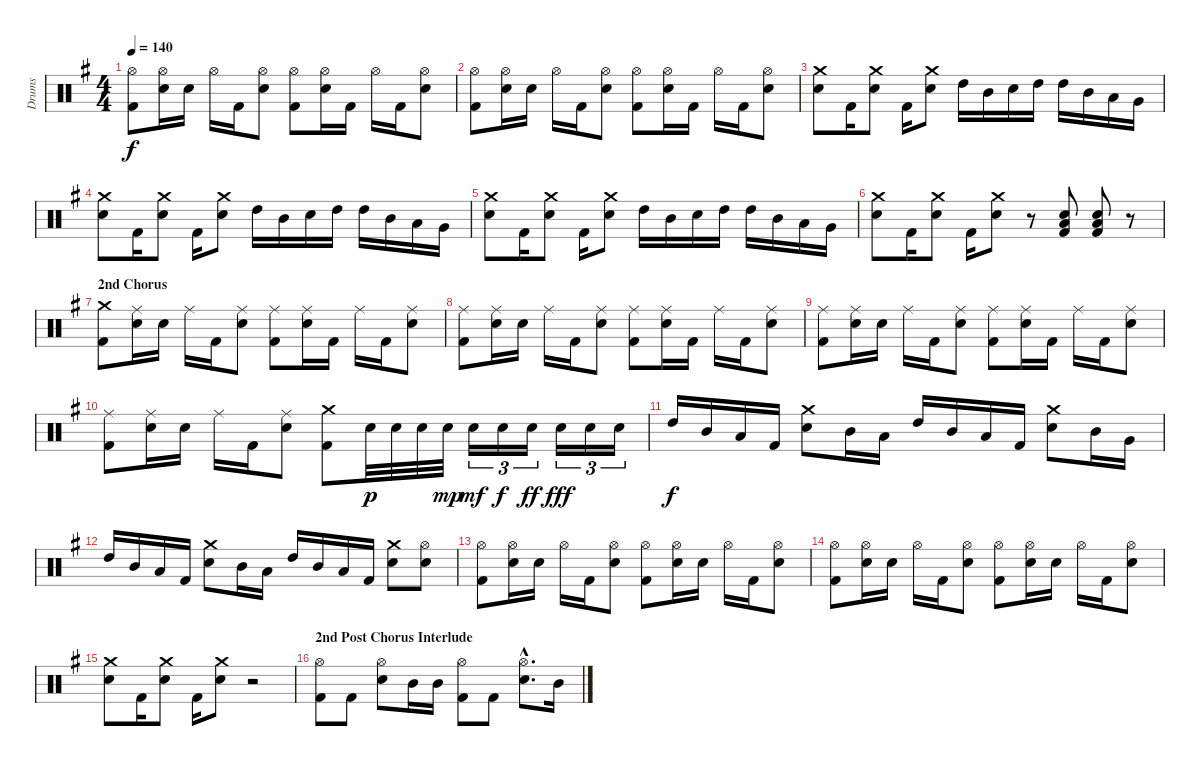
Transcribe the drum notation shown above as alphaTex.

\track ("Drums" "Drums") {instrument percussion}
\staff {score}
\articulation defaults
\ts (4 4)
\tempo 140
\clef neutral
\ks g
("Hi-Hat (open)" "Kick (hit) 2").8{dy f} ("Hi-Hat (open)" "Electric Snare (hit)").16 "Electric Snare (hit)".16 "Hi-Hat (open)".16 "Kick (hit) 2".16 ("Hi-Hat (open)" "Electric Snare (hit)").8 ("Hi-Hat (open)" "Kick (hit) 2").8 ("Hi-Hat (open)" "Electric Snare (hit)").16 "Kick (hit) 2".16 "Hi-Hat (open)".16 "Kick (hit) 2".16 ("Hi-Hat (open)" "Electric Snare (hit)").8 |
("Hi-Hat (open)" "Kick (hit) 2").8 ("Hi-Hat (open)" "Electric Snare (hit)").16 "Electric Snare (hit)".16 "Hi-Hat (open)".16 "Kick (hit) 2".16 ("Hi-Hat (open)" "Electric Snare (hit)").8 ("Hi-Hat (open)" "Kick (hit) 2").8 ("Hi-Hat (open)" "Electric Snare (hit)").16 "Kick (hit) 2".16 "Hi-Hat (open)".16 "Kick (hit) 2".16 ("Hi-Hat (open)" "Electric Snare (hit)").8 |
("Crash medium (hit)" "Electric Snare (hit)").8 "Kick (hit) 2".16 ("Crash medium (hit)" "Electric Snare (hit)").8 "Kick (hit) 2".16 ("Crash medium (hit)" "Electric Snare (hit)").8 "High Tom (hit)".16 "Mid Tom (hit)".16 "Electric Snare (hit)".16 "High Tom (hit)".16 "High Tom (hit)".16 "Mid Tom (hit)".16 "Low Tom (hit)".16 "Very Low Tom (hit)".16 |
("Crash medium (hit)" "Electric Snare (hit)").8 "Kick (hit) 2".16 ("Crash medium (hit)" "Electric Snare (hit)").8 "Kick (hit) 2".16 ("Crash medium (hit)" "Electric Snare (hit)").8 "High Tom (hit)".16 "Mid Tom (hit)".16 "Electric Snare (hit)".16 "High Tom (hit)".16 "High Tom (hit)".16 "Mid Tom (hit)".16 "Low Tom (hit)".16 "Very Low Tom (hit)".16 |
("Crash medium (hit)" "Electric Snare (hit)").8 "Kick (hit) 2".16 ("Crash medium (hit)" "Electric Snare (hit)").8 "Kick (hit) 2".16 ("Crash medium (hit)" "Electric Snare (hit)").8 "High Tom (hit)".16 "Mid Tom (hit)".16 "Electric Snare (hit)".16 "High Tom (hit)".16 "High Tom (hit)".16 "Mid Tom (hit)".16 "Low Tom (hit)".16 "Very Low Tom (hit)".16 |
("Crash medium (hit)" "Electric Snare (hit)").8 "Kick (hit) 2".16 ("Crash medium (hit)" "Electric Snare (hit)").8 "Kick (hit) 2".16 ("Crash medium (hit)" "Electric Snare (hit)").8 r.8 ("Low Tom (hit)" "Electric Snare (hit)" "Kick (hit) 2").8 ("Low Tom (hit)" "Electric Snare (hit)" "Kick (hit) 2").8 r.8 |
\section ("" "2nd Chorus")
("Crash medium (hit)" "Kick (hit) 2").8 ("Ride (middle)" "Electric Snare (hit)").16 "Electric Snare (hit)".16 "Ride (middle)".16 "Kick (hit) 2".16 ("Ride (middle)" "Electric Snare (hit)").8 ("Ride (middle)" "Kick (hit) 2").8 ("Ride (middle)" "Electric Snare (hit)").16 "Kick (hit) 2".16 "Ride (middle)".16 "Kick (hit) 2".16 ("Ride (middle)" "Electric Snare (hit)").8 |
("Ride (middle)" "Kick (hit) 2").8 ("Ride (middle)" "Electric Snare (hit)").16 "Electric Snare (hit)".16 "Ride (middle)".16 "Kick (hit) 2".16 ("Ride (middle)" "Electric Snare (hit)").8 ("Ride (middle)" "Kick (hit) 2").8 ("Ride (middle)" "Electric Snare (hit)").16 "Kick (hit) 2".16 "Ride (middle)".16 "Kick (hit) 2".16 ("Ride (middle)" "Electric Snare (hit)").8 |
("Ride (middle)" "Kick (hit) 2").8 ("Ride (middle)" "Electric Snare (hit)").16 "Electric Snare (hit)".16 "Ride (middle)".16 "Kick (hit) 2".16 ("Ride (middle)" "Electric Snare (hit)").8 ("Ride (middle)" "Kick (hit) 2").8 ("Ride (middle)" "Electric Snare (hit)").16 "Kick (hit) 2".16 "Ride (middle)".16 "Kick (hit) 2".16 ("Ride (middle)" "Electric Snare (hit)").8 |
("Ride (middle)" "Kick (hit) 2").8 ("Ride (middle)" "Electric Snare (hit)").16 "Electric Snare (hit)".16 "Ride (middle)".16 "Kick (hit) 2".16 ("Ride (middle)" "Electric Snare (hit)").8 ("Crash medium (hit)" "Kick (hit) 2").8 "Electric Snare (hit)".32{dy p} "Electric Snare (hit)".32 "Electric Snare (hit)".32 "Electric Snare (hit)".32{dy mp} "Electric Snare (hit)".16{tu (3 2) dy mf} "Electric Snare (hit)".16{tu (3 2) dy f} "Electric Snare (hit)".16{tu (3 2) dy ff} "Electric Snare (hit)".16{tu (3 2) dy fff} "Electric Snare (hit)".16{tu (3 2)} "Electric Snare (hit)".16{tu (3 2)} |
"High Tom (hit)".16{dy f} "Mid Tom (hit)".16 "Low Tom (hit)".16 "Kick (hit) 2".16 ("Crash medium (hit)" "Electric Snare (hit)").8 "Mid Tom (hit)".16 "Low Tom (hit)".16 "High Tom (hit)".16 "Mid Tom (hit)".16 "Low Tom (hit)".16 "Kick (hit) 2".16 ("Crash medium (hit)" "Electric Snare (hit)").8 "Mid Tom (hit)".16 "Very Low Tom (hit)".16 |
"High Tom (hit)".16 "Mid Tom (hit)".16 "Low Tom (hit)".16 "Kick (hit) 2".16 ("Crash medium (hit)" "Electric Snare (hit)").8 "Mid Tom (hit)".16 "Low Tom (hit)".16 "High Tom (hit)".16 "Mid Tom (hit)".16 "Low Tom (hit)".16 "Kick (hit) 2".16 ("Crash medium (hit)" "Electric Snare (hit)").8 ("Hi-Hat (open)" "Electric Snare (hit)").8 |
("Hi-Hat (open)" "Kick (hit) 2").8 ("Hi-Hat (open)" "Electric Snare (hit)").16 "Electric Snare (hit)".16 "Hi-Hat (open)".16 "Kick (hit) 2".16 ("Hi-Hat (open)" "Electric Snare (hit)").8 ("Hi-Hat (open)" "Kick (hit) 2").8 ("Hi-Hat (open)" "Electric Snare (hit)").16 "Electric Snare (hit)".16 "Hi-Hat (open)".16 "Kick (hit) 2".16 ("Hi-Hat (open)" "Electric Snare (hit)").8 |
("Hi-Hat (open)" "Kick (hit) 2").8 ("Hi-Hat (open)" "Electric Snare (hit)").16 "Electric Snare (hit)".16 "Hi-Hat (open)".16 "Kick (hit) 2".16 ("Hi-Hat (open)" "Electric Snare (hit)").8 ("Hi-Hat (open)" "Kick (hit) 2").8 ("Hi-Hat (open)" "Electric Snare (hit)").16 "Electric Snare (hit)".16 "Hi-Hat (open)".16 "Kick (hit) 2".16 ("Hi-Hat (open)" "Electric Snare (hit)").8 |
("Crash medium (hit)" "Electric Snare (hit)").8 "Kick (hit) 2".16 ("Crash medium (hit)" "Electric Snare (hit)").8 "Kick (hit) 2".16 ("Crash medium (hit)" "Electric Snare (hit)").8 r.2 |
\section ("" "2nd Post Chorus Interlude")
("Hi-Hat (open)" "Kick (hit) 2").8 "Kick (hit) 2".8 ("Hi-Hat (open)" "Electric Snare (hit)").8 "Mid Tom (hit)".16 "Mid Tom (hit)".16 ("Hi-Hat (open)" "Kick (hit) 2").8 "Kick (hit) 2".8 ("Hi-Hat (open)"{hac} "Electric Snare (hit)"{hac}).8{d} "Mid Tom (hit)".16
